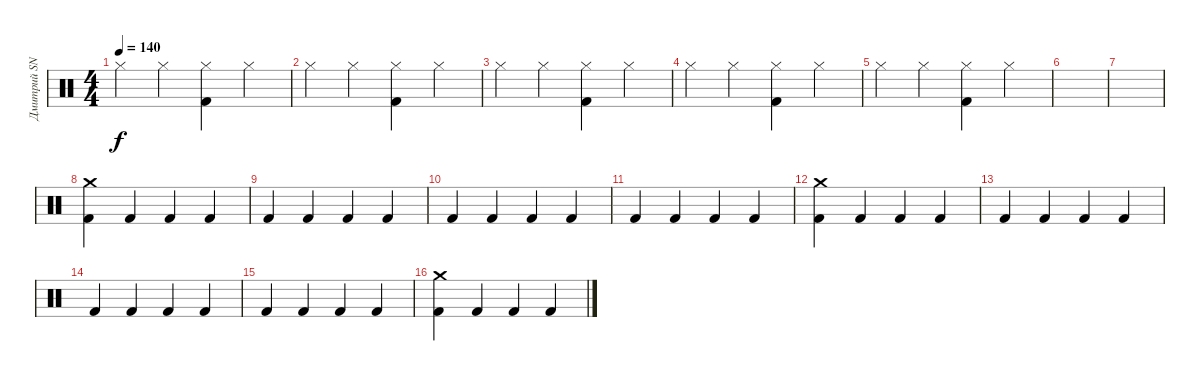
\track ("Дмитрий SNAKE Хакимов" "Дмитрий SN") {instrument percussion}
\staff {score}
\articulation defaults
\ts (4 4)
\tempo 140
\clef neutral
\ks c "Hi-Hat (closed)".4{dy f} "Hi-Hat (closed)".4
("Hi-Hat (closed)" "Kick (hit) 2").4 "Hi-Hat (closed)".4 |
"Hi-Hat (closed)".4 "Hi-Hat (closed)".4 ("Hi-Hat (closed)" "Kick (hit) 2").4 "Hi-Hat (closed)".4 |
"Hi-Hat (closed)".4 "Hi-Hat (closed)".4 ("Hi-Hat (closed)" "Kick (hit) 2").4 "Hi-Hat (closed)".4 |
"Hi-Hat (closed)".4 "Hi-Hat (closed)".4 ("Hi-Hat (closed)" "Kick (hit) 2").4 "Hi-Hat (closed)".4 |
"Hi-Hat (closed)".4 "Hi-Hat (closed)".4 ("Hi-Hat (closed)" "Kick (hit) 2").4 "Hi-Hat (closed)".4 |
|
|
("Crash medium (hit)" "Kick (hit) 2").4 "Kick (hit) 2".4 "Kick (hit) 2".4 "Kick (hit) 2".4 |
"Kick (hit) 2".4 "Kick (hit) 2".4 "Kick (hit) 2".4 "Kick (hit) 2".4 |
"Kick (hit) 2".4 "Kick (hit) 2".4 "Kick (hit) 2".4 "Kick (hit) 2".4 |
"Kick (hit) 2".4 "Kick (hit) 2".4 "Kick (hit) 2".4 "Kick (hit) 2".4 |
("Crash medium (hit)" "Kick (hit) 2").4 "Kick (hit) 2".4 "Kick (hit) 2".4 "Kick (hit) 2".4 |
"Kick (hit) 2".4 "Kick (hit) 2".4 "Kick (hit) 2".4 "Kick (hit) 2".4 |
"Kick (hit) 2".4 "Kick (hit) 2".4 "Kick (hit) 2".4 "Kick (hit) 2".4 |
"Kick (hit) 2".4 "Kick (hit) 2".4 "Kick (hit) 2".4 "Kick (hit) 2".4 |
("Crash medium (hit)" "Kick (hit) 2").4 "Kick (hit) 2".4 "Kick (hit) 2".4 "Kick (hit) 2".4
